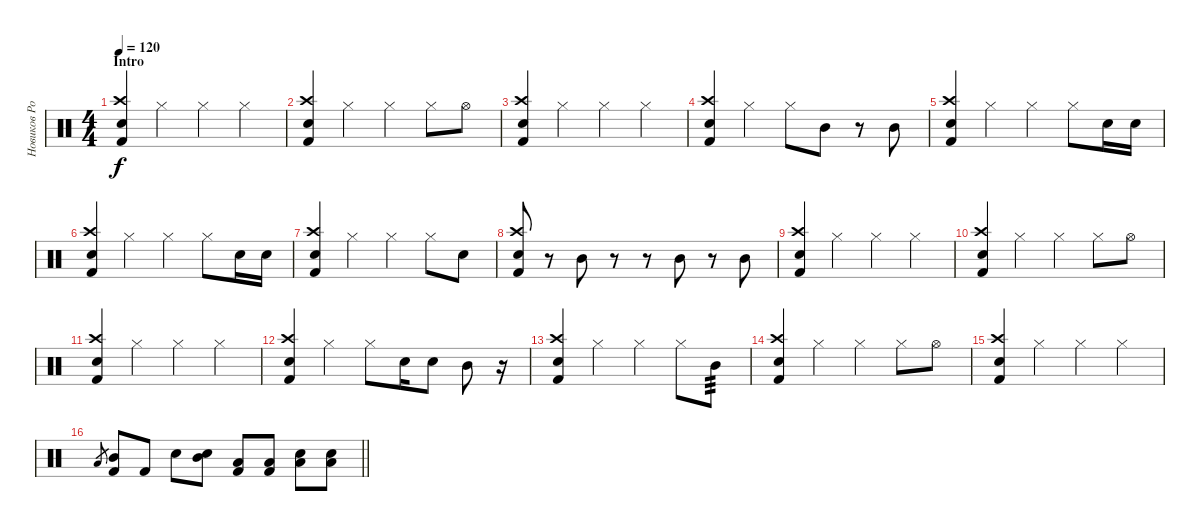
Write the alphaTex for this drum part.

\track ("Новиков Роман  ( Ударные )" "Новиков Ро") {instrument percussion}
\staff {score}
\articulation defaults
\ts (4 4)
\section ("" "Intro")
\tempo 120
\clef neutral
\ks c
("Snare (hit) 2" "Crash high (hit)" "Kick (hit) 2").4{dy f} "Hi-Hat (closed)".4 "Hi-Hat (closed)".4 "Hi-Hat (closed)".4 |
("Snare (hit) 2" "Kick (hit) 2" "Crash high (hit)").4 "Hi-Hat (closed)".4 "Hi-Hat (closed)".4 "Hi-Hat (closed)".8 "Hi-Hat (open)".8 |
("Snare (hit) 2" "Kick (hit) 2" "Crash high (hit)").4 "Hi-Hat (closed)".4 "Hi-Hat (closed)".4 "Hi-Hat (closed)".4 |
("Kick (hit) 2" "Snare (hit) 2" "Crash high (hit)").4 "Hi-Hat (closed)".4 "Hi-Hat (closed)".8 "Mid Tom (hit)".8 r.8 "Mid Tom (hit)".8 |
("Snare (hit) 2" "Crash high (hit)" "Kick (hit) 2").4 "Hi-Hat (closed)".4 "Hi-Hat (closed)".4 "Hi-Hat (closed)".8 "Snare (hit) 2".16 "Snare (hit) 2".16 |
("Snare (hit) 2" "Kick (hit) 2" "Crash high (hit)").4 "Hi-Hat (closed)".4 "Hi-Hat (closed)".4 "Hi-Hat (closed)".8 "Snare (hit) 2".16 "Snare (hit) 2".16 |
("Snare (hit) 2" "Kick (hit) 2" "Crash high (hit)").4 "Hi-Hat (closed)".4 "Hi-Hat (closed)".4 "Hi-Hat (closed)".8 "Snare (hit) 2".8 |
("Crash high (hit)" "Snare (hit) 2" "Kick (hit) 2").8 r.8 "Mid Tom (hit)".8 r.8 r.8 "Mid Tom (hit)".8 r.8 "Mid Tom (hit)".8 |
("Snare (hit) 2" "Crash high (hit)" "Kick (hit) 2").4 "Hi-Hat (closed)".4 "Hi-Hat (closed)".4 "Hi-Hat (closed)".4 |
("Snare (hit) 2" "Kick (hit) 2" "Crash high (hit)").4 "Hi-Hat (closed)".4 "Hi-Hat (closed)".4 "Hi-Hat (closed)".8 "Hi-Hat (open)".8 |
("Snare (hit) 2" "Kick (hit) 2" "Crash high (hit)").4 "Hi-Hat (closed)".4 "Hi-Hat (closed)".4 "Hi-Hat (closed)".4 |
("Kick (hit) 2" "Snare (hit) 2" "Crash high (hit)").4 "Hi-Hat (closed)".4 "Hi-Hat (closed)".8 "Snare (hit) 2".16 "Snare (hit) 2".8 "Mid Tom (hit)".8 r.16 |
("Snare (hit) 2" "Crash high (hit)" "Kick (hit) 2").4 "Hi-Hat (closed)".4 "Hi-Hat (closed)".4 "Hi-Hat (closed)".8 "Mid Tom (hit)".8{tp 3} |
("Snare (hit) 2" "Kick (hit) 2" "Crash high (hit)").4 "Hi-Hat (closed)".4 "Hi-Hat (closed)".4 "Hi-Hat (closed)".8 "Hi-Hat (open)".8 |
("Snare (hit) 2" "Kick (hit) 2" "Crash high (hit)").4 "Hi-Hat (closed)".4 "Hi-Hat (closed)".4 "Hi-Hat (closed)".4 |
\barLineRight lightlight "Low Tom (hit)"{h}.8{gr}
("Mid Tom (hit)" "Kick (hit) 2").8 "Kick (hit) 2".8 "Snare (hit) 2".8 ("Mid Tom (hit)" "Snare (hit) 2").8 ("Low Tom (hit)" "Kick (hit) 2").8 ("Low Tom (hit)" "Kick (hit) 2").8 ("Low Floor Tom (hit)" "Snare (hit) 2").8 ("Low Floor Tom (hit)" "Snare (hit) 2").8
